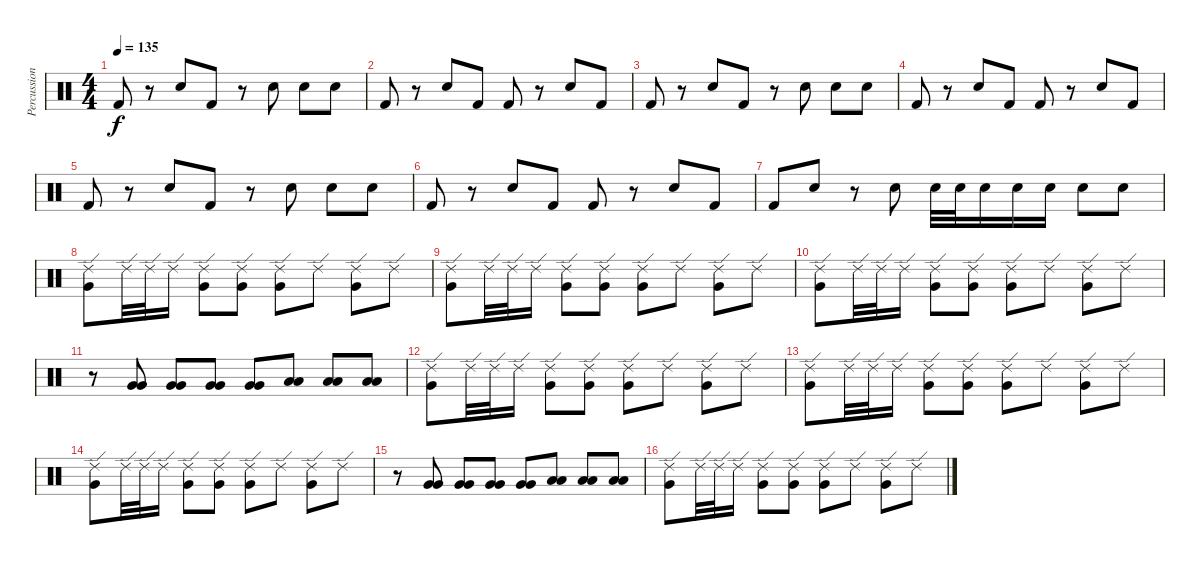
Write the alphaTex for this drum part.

\track ("Percussions" "Percussion") {instrument percussion}
\staff {score}
\articulation defaults
\ts (4 4)
\tempo 135
\clef neutral
\ks c "Kick (hit) 2".8{dy f}
r.8 "Snare (hit) 2".8 "Kick (hit) 2".8 r.8 "Snare (hit) 2".8 "Snare (hit) 2".8 "Snare (hit) 2".8 |
"Kick (hit) 2".8 r.8 "Snare (hit) 2".8 "Kick (hit) 2".8 "Kick (hit) 2".8 r.8 "Snare (hit) 2".8 "Kick (hit) 2".8 |
"Kick (hit) 2".8 r.8 "Snare (hit) 2".8 "Kick (hit) 2".8 r.8 "Snare (hit) 2".8 "Snare (hit) 2".8 "Snare (hit) 2".8 |
"Kick (hit) 2".8 r.8 "Snare (hit) 2".8 "Kick (hit) 2".8 "Kick (hit) 2".8 r.8 "Snare (hit) 2".8 "Kick (hit) 2".8 |
"Kick (hit) 2".8 r.8 "Snare (hit) 2".8 "Kick (hit) 2".8 r.8 "Snare (hit) 2".8 "Snare (hit) 2".8 "Snare (hit) 2".8 |
"Kick (hit) 2".8 r.8 "Snare (hit) 2".8 "Kick (hit) 2".8 "Kick (hit) 2".8 r.8 "Snare (hit) 2".8 "Kick (hit) 2".8 |
"Kick (hit) 2".8 "Snare (hit) 2".8 r.8 "Snare (hit) 2".8 "Snare (hit) 2".32 "Snare (hit) 2".32 "Snare (hit) 2".16 "Snare (hit) 2".16 "Snare (hit) 2".16 "Snare (hit) 2".8 "Snare (hit) 2".8 |
("Very Low Tom (hit)" "Ride (edge) 2").8 "Ride (edge) 2".32 "Ride (edge) 2".32 "Ride (edge) 2".16 ("Very Low Tom (hit)" "Ride (edge) 2").8 ("Very Low Tom (hit)" "Ride (edge) 2").8 ("Very Low Tom (hit)" "Ride (edge) 2").8 "Ride (edge) 2".8 ("Very Low Tom (hit)" "Ride (edge) 2").8 "Ride (edge) 2".8 |
("Very Low Tom (hit)" "Ride (edge) 2").8 "Ride (edge) 2".32 "Ride (edge) 2".32 "Ride (edge) 2".16 ("Very Low Tom (hit)" "Ride (edge) 2").8 ("Very Low Tom (hit)" "Ride (edge) 2").8 ("Very Low Tom (hit)" "Ride (edge) 2").8 "Ride (edge) 2".8 ("Very Low Tom (hit)" "Ride (edge) 2").8 "Ride (edge) 2".8 |
("Very Low Tom (hit)" "Ride (edge) 2").8 "Ride (edge) 2".32 "Ride (edge) 2".32 "Ride (edge) 2".16 ("Very Low Tom (hit)" "Ride (edge) 2").8 ("Very Low Tom (hit)" "Ride (edge) 2").8 ("Very Low Tom (hit)" "Ride (edge) 2").8 "Ride (edge) 2".8 ("Very Low Tom (hit)" "Ride (edge) 2").8 "Ride (edge) 2".8 |
r.8 ("Very Low Tom (hit)" "Very Low Tom (hit)").8 ("Very Low Tom (hit)" "Very Low Tom (hit)").8 ("Very Low Tom (hit)" "Very Low Tom (hit)").8 ("Very Low Tom (hit)" "Very Low Tom (hit)").8 ("Low Floor Tom (hit)" "Low Floor Tom (hit)").8 ("Low Floor Tom (hit)" "Low Floor Tom (hit)").8 ("Low Floor Tom (hit)" "Low Floor Tom (hit)").8 |
("Very Low Tom (hit)" "Ride (edge) 2").8 "Ride (edge) 2".32 "Ride (edge) 2".32 "Ride (edge) 2".16 ("Very Low Tom (hit)" "Ride (edge) 2").8 ("Very Low Tom (hit)" "Ride (edge) 2").8 ("Very Low Tom (hit)" "Ride (edge) 2").8 "Ride (edge) 2".8 ("Very Low Tom (hit)" "Ride (edge) 2").8 "Ride (edge) 2".8 |
("Very Low Tom (hit)" "Ride (edge) 2").8 "Ride (edge) 2".32 "Ride (edge) 2".32 "Ride (edge) 2".16 ("Very Low Tom (hit)" "Ride (edge) 2").8 ("Very Low Tom (hit)" "Ride (edge) 2").8 ("Very Low Tom (hit)" "Ride (edge) 2").8 "Ride (edge) 2".8 ("Very Low Tom (hit)" "Ride (edge) 2").8 "Ride (edge) 2".8 |
("Very Low Tom (hit)" "Ride (edge) 2").8 "Ride (edge) 2".32 "Ride (edge) 2".32 "Ride (edge) 2".16 ("Very Low Tom (hit)" "Ride (edge) 2").8 ("Very Low Tom (hit)" "Ride (edge) 2").8 ("Very Low Tom (hit)" "Ride (edge) 2").8 "Ride (edge) 2".8 ("Very Low Tom (hit)" "Ride (edge) 2").8 "Ride (edge) 2".8 |
r.8 ("Very Low Tom (hit)" "Very Low Tom (hit)").8 ("Very Low Tom (hit)" "Very Low Tom (hit)").8 ("Very Low Tom (hit)" "Very Low Tom (hit)").8 ("Very Low Tom (hit)" "Very Low Tom (hit)").8 ("Low Floor Tom (hit)" "Low Floor Tom (hit)").8 ("Low Floor Tom (hit)" "Low Floor Tom (hit)").8 ("Low Floor Tom (hit)" "Low Floor Tom (hit)").8 |
("Very Low Tom (hit)" "Ride (edge) 2").8 "Ride (edge) 2".32 "Ride (edge) 2".32 "Ride (edge) 2".16 ("Very Low Tom (hit)" "Ride (edge) 2").8 ("Very Low Tom (hit)" "Ride (edge) 2").8 ("Very Low Tom (hit)" "Ride (edge) 2").8 "Ride (edge) 2".8 ("Very Low Tom (hit)" "Ride (edge) 2").8 "Ride (edge) 2".8
